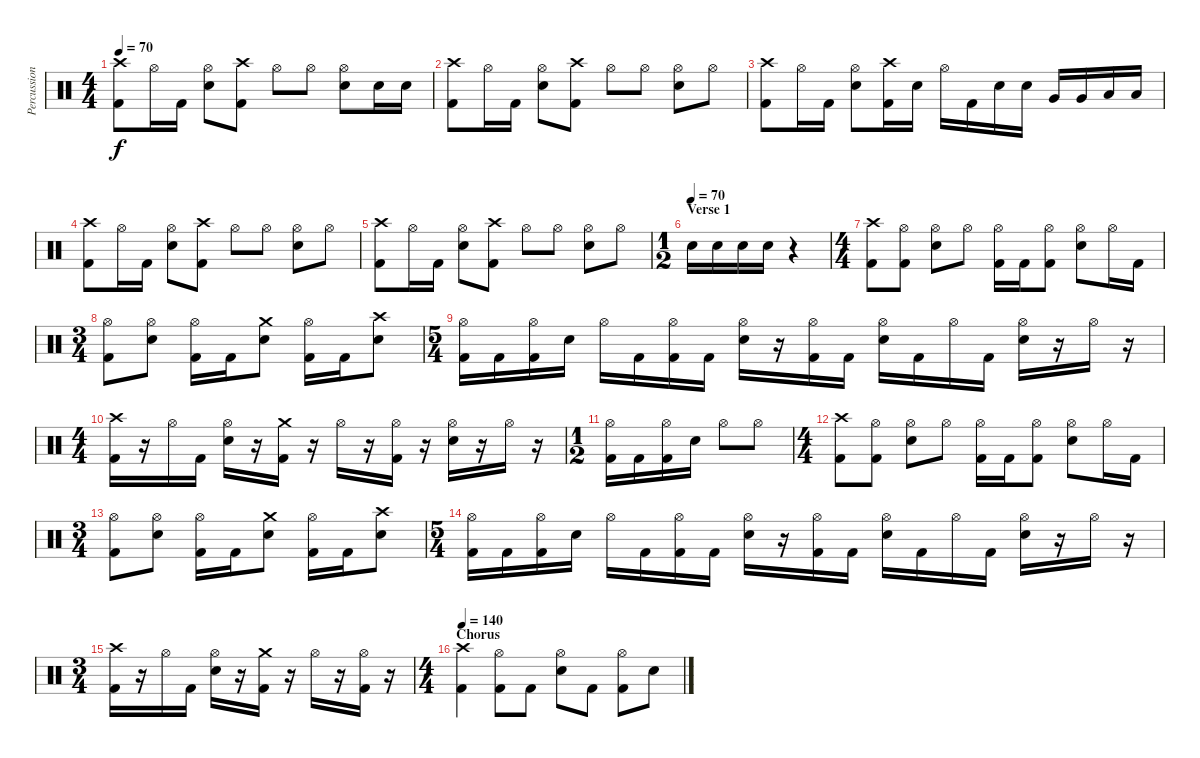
\track ("Percussion" "Percussion") {instrument percussion}
\staff {score}
\articulation defaults
\ts (4 4)
\tempo 70
\clef neutral
\ks c
("Crash high (hit)" "Kick (hit) 2").8{dy f} "Hi-Hat (open)".16 "Kick (hit) 2".16 ("Hi-Hat (open)" "Electric Snare (hit)").8 ("Crash high (hit)" "Kick (hit) 2").8 "Hi-Hat (open)".8 "Hi-Hat (open)".8 ("Hi-Hat (open)" "Electric Snare (hit)").8 "Electric Snare (hit)".16 "Electric Snare (hit)".16 |
("Crash high (hit)" "Kick (hit) 2").8 "Hi-Hat (open)".16 "Kick (hit) 2".16 ("Hi-Hat (open)" "Electric Snare (hit)").8 ("Crash high (hit)" "Kick (hit) 2").8 "Hi-Hat (open)".8 "Hi-Hat (open)".8 ("Hi-Hat (open)" "Electric Snare (hit)").8 "Hi-Hat (open)".8 |
("Crash high (hit)" "Kick (hit) 2").8 "Hi-Hat (open)".16 "Kick (hit) 2".16 ("Hi-Hat (open)" "Electric Snare (hit)").8 ("Crash high (hit)" "Kick (hit) 2").16 "Electric Snare (hit)".16 "Hi-Hat (open)".16 "Kick (hit) 2".16 "Electric Snare (hit)".16 "Electric Snare (hit)".16 "Very Low Tom (hit)".16 "Very Low Tom (hit)".16 "Low Floor Tom (hit)".16 "Low Floor Tom (hit)".16 |
("Crash high (hit)" "Kick (hit) 2").8 "Hi-Hat (open)".16 "Kick (hit) 2".16 ("Hi-Hat (open)" "Electric Snare (hit)").8 ("Crash high (hit)" "Kick (hit) 2").8 "Hi-Hat (open)".8 "Hi-Hat (open)".8 ("Hi-Hat (open)" "Electric Snare (hit)").8 "Hi-Hat (open)".8 |
("Crash high (hit)" "Kick (hit) 2").8 "Hi-Hat (open)".16 "Kick (hit) 2".16 ("Hi-Hat (open)" "Electric Snare (hit)").8 ("Crash high (hit)" "Kick (hit) 2").8 "Hi-Hat (open)".8 "Hi-Hat (open)".8 ("Hi-Hat (open)" "Electric Snare (hit)").8 "Hi-Hat (open)".8 |
\ts (1 2)
\section ("" "Verse 1")
\tempo (70)
"Electric Snare (hit)".16 "Electric Snare (hit)".16 "Electric Snare (hit)".16 "Electric Snare (hit)".16 r.4 |
\ts (4 4)
("Crash high (hit)" "Kick (hit) 2").8 ("Hi-Hat (open)" "Kick (hit) 2").8 ("Hi-Hat (open)" "Electric Snare (hit)").8 "Hi-Hat (open)".8 ("Hi-Hat (open)" "Kick (hit) 2").16 "Kick (hit) 2".16 ("Hi-Hat (open)" "Kick (hit) 2").8 ("Hi-Hat (open)" "Electric Snare (hit)").8 "Hi-Hat (open)".16 "Kick (hit) 2".16 |
\ts (3 4)
("Hi-Hat (open)" "Kick (hit) 2").8 ("Hi-Hat (open)" "Electric Snare (hit)").8 ("Hi-Hat (open)" "Kick (hit) 2").16 "Kick (hit) 2".16 ("Crash medium (hit)" "Electric Snare (hit)").8 ("Hi-Hat (open)" "Kick (hit) 2").16 "Kick (hit) 2".16 ("Crash high (hit)" "Electric Snare (hit)").8 |
\ts (5 4)
("Hi-Hat (open)" "Kick (hit) 2").16 "Kick (hit) 2".16 ("Hi-Hat (open)" "Kick (hit) 2").16 "Electric Snare (hit)".16 "Hi-Hat (open)".16 "Kick (hit) 2".16 ("Hi-Hat (open)" "Kick (hit) 2").16 "Kick (hit) 2".16 ("Hi-Hat (open)" "Electric Snare (hit)").16 r.16 ("Hi-Hat (open)" "Kick (hit) 2").16 "Kick (hit) 2".16 ("Hi-Hat (open)" "Electric Snare (hit)").16 "Kick (hit) 2".16 "Hi-Hat (open)".16 "Kick (hit) 2".16 ("Hi-Hat (open)" "Electric Snare (hit)").16 r.16 "Hi-Hat (open)".16 r.16 |
\ts (4 4)
("Crash high (hit)" "Kick (hit) 2").16 r.16 "Hi-Hat (open)".16 "Kick (hit) 2".16 ("Hi-Hat (open)" "Electric Snare (hit)").16 r.16 ("Crash medium (hit)" "Kick (hit) 2").16 r.16 "Hi-Hat (open)".16 r.16 ("Hi-Hat (open)" "Kick (hit) 2").16 r.16 ("Hi-Hat (open)" "Electric Snare (hit)").16 r.16 "Hi-Hat (open)".16 r.16 |
\ts (1 2)
("Hi-Hat (open)" "Kick (hit) 2").16 "Kick (hit) 2".16 ("Hi-Hat (open)" "Kick (hit) 2").16 "Electric Snare (hit)".16 "Hi-Hat (open)".8 "Hi-Hat (open)".8 |
\ts (4 4)
("Crash high (hit)" "Kick (hit) 2").8 ("Hi-Hat (open)" "Kick (hit) 2").8 ("Hi-Hat (open)" "Electric Snare (hit)").8 "Hi-Hat (open)".8 ("Hi-Hat (open)" "Kick (hit) 2").16 "Kick (hit) 2".16 ("Hi-Hat (open)" "Kick (hit) 2").8 ("Hi-Hat (open)" "Electric Snare (hit)").8 "Hi-Hat (open)".16 "Kick (hit) 2".16 |
\ts (3 4)
("Hi-Hat (open)" "Kick (hit) 2").8 ("Hi-Hat (open)" "Electric Snare (hit)").8 ("Hi-Hat (open)" "Kick (hit) 2").16 "Kick (hit) 2".16 ("Crash medium (hit)" "Electric Snare (hit)").8 ("Hi-Hat (open)" "Kick (hit) 2").16 "Kick (hit) 2".16 ("Crash high (hit)" "Electric Snare (hit)").8 |
\ts (5 4)
("Hi-Hat (open)" "Kick (hit) 2").16 "Kick (hit) 2".16 ("Hi-Hat (open)" "Kick (hit) 2").16 "Electric Snare (hit)".16 "Hi-Hat (open)".16 "Kick (hit) 2".16 ("Hi-Hat (open)" "Kick (hit) 2").16 "Kick (hit) 2".16 ("Hi-Hat (open)" "Electric Snare (hit)").16 r.16 ("Hi-Hat (open)" "Kick (hit) 2").16 "Kick (hit) 2".16 ("Hi-Hat (open)" "Electric Snare (hit)").16 "Kick (hit) 2".16 "Hi-Hat (open)".16 "Kick (hit) 2".16 ("Hi-Hat (open)" "Electric Snare (hit)").16 r.16 "Hi-Hat (open)".16 r.16 |
\ts (3 4)
("Crash high (hit)" "Kick (hit) 2").16 r.16 "Hi-Hat (open)".16 "Kick (hit) 2".16 ("Hi-Hat (open)" "Electric Snare (hit)").16 r.16 ("Crash medium (hit)" "Kick (hit) 2").16 r.16 "Hi-Hat (open)".16 r.16 ("Hi-Hat (open)" "Kick (hit) 2").16 r.16 |
\ts (4 4)
\section ("" "Chorus")
\tempo 140
("Crash high (hit)" "Kick (hit) 2").4 ("Hi-Hat (open)" "Kick (hit) 2").8 "Kick (hit) 2".8 ("Hi-Hat (open)" "Electric Snare (hit)").8 "Kick (hit) 2".8 ("Hi-Hat (open)" "Kick (hit) 2").8 "Electric Snare (hit)".8
